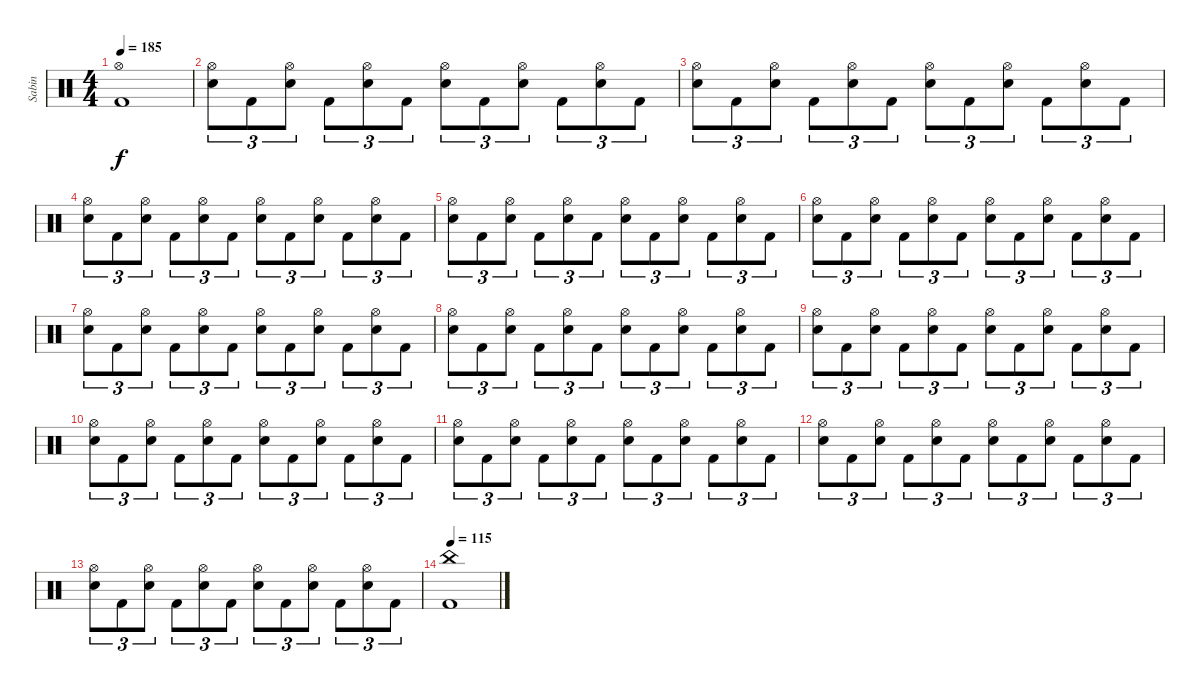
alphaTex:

\track ("Sabin" "Sabin") {instrument percussion}
\staff {score}
\articulation defaults
\ts (4 4)
\tempo 185
\clef neutral
\ks c
("Hi-Hat (open)" "Kick (hit) 2").1{dy f} |
("Hi-Hat (open)" "Snare (hit) 2").8{tu (3 2)} "Kick (hit) 2".8{tu (3 2)} ("Hi-Hat (open)" "Snare (hit) 2").8{tu (3 2)} "Kick (hit) 2".8{tu (3 2)} ("Hi-Hat (open)" "Snare (hit) 2").8{tu (3 2)} "Kick (hit) 2".8{tu (3 2)} ("Hi-Hat (open)" "Snare (hit) 2").8{tu (3 2)} "Kick (hit) 2".8{tu (3 2)} ("Hi-Hat (open)" "Snare (hit) 2").8{tu (3 2)} "Kick (hit) 2".8{tu (3 2)} ("Hi-Hat (open)" "Snare (hit) 2").8{tu (3 2)} "Kick (hit) 2".8{tu (3 2)} |
("Hi-Hat (open)" "Snare (hit) 2").8{tu (3 2)} "Kick (hit) 2".8{tu (3 2)} ("Hi-Hat (open)" "Snare (hit) 2").8{tu (3 2)} "Kick (hit) 2".8{tu (3 2)} ("Hi-Hat (open)" "Snare (hit) 2").8{tu (3 2)} "Kick (hit) 2".8{tu (3 2)} ("Hi-Hat (open)" "Snare (hit) 2").8{tu (3 2)} "Kick (hit) 2".8{tu (3 2)} ("Hi-Hat (open)" "Snare (hit) 2").8{tu (3 2)} "Kick (hit) 2".8{tu (3 2)} ("Hi-Hat (open)" "Snare (hit) 2").8{tu (3 2)} "Kick (hit) 2".8{tu (3 2)} |
("Hi-Hat (open)" "Snare (hit) 2").8{tu (3 2)} "Kick (hit) 2".8{tu (3 2)} ("Hi-Hat (open)" "Snare (hit) 2").8{tu (3 2)} "Kick (hit) 2".8{tu (3 2)} ("Hi-Hat (open)" "Snare (hit) 2").8{tu (3 2)} "Kick (hit) 2".8{tu (3 2)} ("Hi-Hat (open)" "Snare (hit) 2").8{tu (3 2)} "Kick (hit) 2".8{tu (3 2)} ("Hi-Hat (open)" "Snare (hit) 2").8{tu (3 2)} "Kick (hit) 2".8{tu (3 2)} ("Hi-Hat (open)" "Snare (hit) 2").8{tu (3 2)} "Kick (hit) 2".8{tu (3 2)} |
("Hi-Hat (open)" "Snare (hit) 2").8{tu (3 2)} "Kick (hit) 2".8{tu (3 2)} ("Hi-Hat (open)" "Snare (hit) 2").8{tu (3 2)} "Kick (hit) 2".8{tu (3 2)} ("Hi-Hat (open)" "Snare (hit) 2").8{tu (3 2)} "Kick (hit) 2".8{tu (3 2)} ("Hi-Hat (open)" "Snare (hit) 2").8{tu (3 2)} "Kick (hit) 2".8{tu (3 2)} ("Hi-Hat (open)" "Snare (hit) 2").8{tu (3 2)} "Kick (hit) 2".8{tu (3 2)} ("Hi-Hat (open)" "Snare (hit) 2").8{tu (3 2)} "Kick (hit) 2".8{tu (3 2)} |
("Hi-Hat (open)" "Snare (hit) 2").8{tu (3 2)} "Kick (hit) 2".8{tu (3 2)} ("Hi-Hat (open)" "Snare (hit) 2").8{tu (3 2)} "Kick (hit) 2".8{tu (3 2)} ("Hi-Hat (open)" "Snare (hit) 2").8{tu (3 2)} "Kick (hit) 2".8{tu (3 2)} ("Hi-Hat (open)" "Snare (hit) 2").8{tu (3 2)} "Kick (hit) 2".8{tu (3 2)} ("Hi-Hat (open)" "Snare (hit) 2").8{tu (3 2)} "Kick (hit) 2".8{tu (3 2)} ("Hi-Hat (open)" "Snare (hit) 2").8{tu (3 2)} "Kick (hit) 2".8{tu (3 2)} |
("Hi-Hat (open)" "Snare (hit) 2").8{tu (3 2)} "Kick (hit) 2".8{tu (3 2)} ("Hi-Hat (open)" "Snare (hit) 2").8{tu (3 2)} "Kick (hit) 2".8{tu (3 2)} ("Hi-Hat (open)" "Snare (hit) 2").8{tu (3 2)} "Kick (hit) 2".8{tu (3 2)} ("Hi-Hat (open)" "Snare (hit) 2").8{tu (3 2)} "Kick (hit) 2".8{tu (3 2)} ("Hi-Hat (open)" "Snare (hit) 2").8{tu (3 2)} "Kick (hit) 2".8{tu (3 2)} ("Hi-Hat (open)" "Snare (hit) 2").8{tu (3 2)} "Kick (hit) 2".8{tu (3 2)} |
("Hi-Hat (open)" "Snare (hit) 2").8{tu (3 2)} "Kick (hit) 2".8{tu (3 2)} ("Hi-Hat (open)" "Snare (hit) 2").8{tu (3 2)} "Kick (hit) 2".8{tu (3 2)} ("Hi-Hat (open)" "Snare (hit) 2").8{tu (3 2)} "Kick (hit) 2".8{tu (3 2)} ("Hi-Hat (open)" "Snare (hit) 2").8{tu (3 2)} "Kick (hit) 2".8{tu (3 2)} ("Hi-Hat (open)" "Snare (hit) 2").8{tu (3 2)} "Kick (hit) 2".8{tu (3 2)} ("Hi-Hat (open)" "Snare (hit) 2").8{tu (3 2)} "Kick (hit) 2".8{tu (3 2)} |
("Hi-Hat (open)" "Snare (hit) 2").8{tu (3 2)} "Kick (hit) 2".8{tu (3 2)} ("Hi-Hat (open)" "Snare (hit) 2").8{tu (3 2)} "Kick (hit) 2".8{tu (3 2)} ("Hi-Hat (open)" "Snare (hit) 2").8{tu (3 2)} "Kick (hit) 2".8{tu (3 2)} ("Hi-Hat (open)" "Snare (hit) 2").8{tu (3 2)} "Kick (hit) 2".8{tu (3 2)} ("Hi-Hat (open)" "Snare (hit) 2").8{tu (3 2)} "Kick (hit) 2".8{tu (3 2)} ("Hi-Hat (open)" "Snare (hit) 2").8{tu (3 2)} "Kick (hit) 2".8{tu (3 2)} |
("Hi-Hat (open)" "Snare (hit) 2").8{tu (3 2)} "Kick (hit) 2".8{tu (3 2)} ("Hi-Hat (open)" "Snare (hit) 2").8{tu (3 2)} "Kick (hit) 2".8{tu (3 2)} ("Hi-Hat (open)" "Snare (hit) 2").8{tu (3 2)} "Kick (hit) 2".8{tu (3 2)} ("Hi-Hat (open)" "Snare (hit) 2").8{tu (3 2)} "Kick (hit) 2".8{tu (3 2)} ("Hi-Hat (open)" "Snare (hit) 2").8{tu (3 2)} "Kick (hit) 2".8{tu (3 2)} ("Hi-Hat (open)" "Snare (hit) 2").8{tu (3 2)} "Kick (hit) 2".8{tu (3 2)} |
("Hi-Hat (open)" "Snare (hit) 2").8{tu (3 2)} "Kick (hit) 2".8{tu (3 2)} ("Hi-Hat (open)" "Snare (hit) 2").8{tu (3 2)} "Kick (hit) 2".8{tu (3 2)} ("Hi-Hat (open)" "Snare (hit) 2").8{tu (3 2)} "Kick (hit) 2".8{tu (3 2)} ("Hi-Hat (open)" "Snare (hit) 2").8{tu (3 2)} "Kick (hit) 2".8{tu (3 2)} ("Hi-Hat (open)" "Snare (hit) 2").8{tu (3 2)} "Kick (hit) 2".8{tu (3 2)} ("Hi-Hat (open)" "Snare (hit) 2").8{tu (3 2)} "Kick (hit) 2".8{tu (3 2)} |
("Hi-Hat (open)" "Snare (hit) 2").8{tu (3 2)} "Kick (hit) 2".8{tu (3 2)} ("Hi-Hat (open)" "Snare (hit) 2").8{tu (3 2)} "Kick (hit) 2".8{tu (3 2)} ("Hi-Hat (open)" "Snare (hit) 2").8{tu (3 2)} "Kick (hit) 2".8{tu (3 2)} ("Hi-Hat (open)" "Snare (hit) 2").8{tu (3 2)} "Kick (hit) 2".8{tu (3 2)} ("Hi-Hat (open)" "Snare (hit) 2").8{tu (3 2)} "Kick (hit) 2".8{tu (3 2)} ("Hi-Hat (open)" "Snare (hit) 2").8{tu (3 2)} "Kick (hit) 2".8{tu (3 2)} |
("Hi-Hat (open)" "Snare (hit) 2").8{tu (3 2)} "Kick (hit) 2".8{tu (3 2)} ("Hi-Hat (open)" "Snare (hit) 2").8{tu (3 2)} "Kick (hit) 2".8{tu (3 2)} ("Hi-Hat (open)" "Snare (hit) 2").8{tu (3 2)} "Kick (hit) 2".8{tu (3 2)} ("Hi-Hat (open)" "Snare (hit) 2").8{tu (3 2)} "Kick (hit) 2".8{tu (3 2)} ("Hi-Hat (open)" "Snare (hit) 2").8{tu (3 2)} "Kick (hit) 2".8{tu (3 2)} ("Hi-Hat (open)" "Snare (hit) 2").8{tu (3 2)} "Kick (hit) 2".8{tu (3 2)} |
\tempo 115
("China (hit)" "Kick (hit) 2").1
